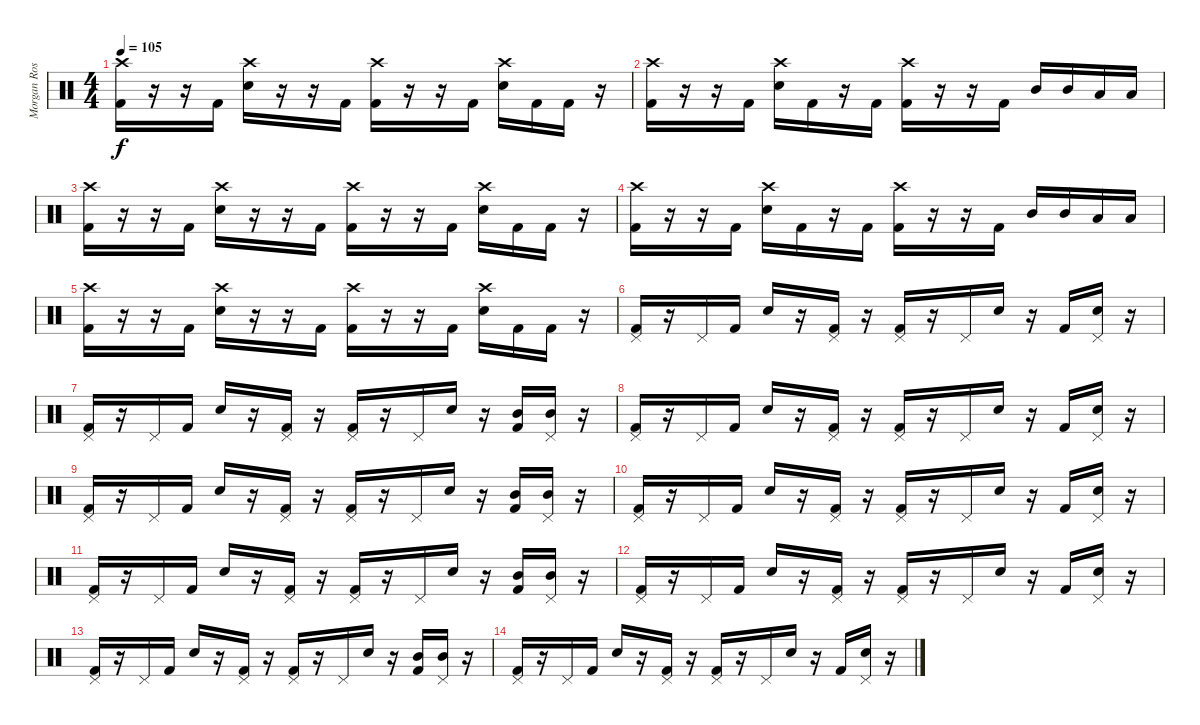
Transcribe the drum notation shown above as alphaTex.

\track ("Morgan Rose - Drums" "Morgan Ros") {instrument percussion}
\staff {score}
\articulation defaults
\ts (4 4)
\tempo 105
\clef neutral
\ks c
("Kick (hit) 2" "Crash high (hit)").16{dy f} r.16 r.16 "Kick (hit) 2".16 ("Snare (hit) 2" "Crash high (hit)").16 r.16 r.16 "Kick (hit) 2".16 ("Kick (hit) 2" "Crash high (hit)").16 r.16 r.16 "Kick (hit) 2".16 ("Snare (hit) 2" "Crash high (hit)").16 "Kick (hit) 2".16 "Kick (hit) 2".16 r.16 |
("Kick (hit) 2" "Crash high (hit)").16 r.16 r.16 "Kick (hit) 2".16 ("Snare (hit) 2" "Crash high (hit)").16 "Kick (hit) 2".16 r.16 "Kick (hit) 2".16 ("Kick (hit) 2" "Crash high (hit)").16 r.16 r.16 "Kick (hit) 2".16 "Mid Tom (hit)".16 "Mid Tom (hit)".16 "Low Tom (hit)".16 "Low Tom (hit)".16 |
("Kick (hit) 2" "Crash high (hit)").16 r.16 r.16 "Kick (hit) 2".16 ("Snare (hit) 2" "Crash high (hit)").16 r.16 r.16 "Kick (hit) 2".16 ("Kick (hit) 2" "Crash high (hit)").16 r.16 r.16 "Kick (hit) 2".16 ("Snare (hit) 2" "Crash high (hit)").16 "Kick (hit) 2".16 "Kick (hit) 2".16 r.16 |
("Kick (hit) 2" "Crash high (hit)").16 r.16 r.16 "Kick (hit) 2".16 ("Snare (hit) 2" "Crash high (hit)").16 "Kick (hit) 2".16 r.16 "Kick (hit) 2".16 ("Kick (hit) 2" "Crash high (hit)").16 r.16 r.16 "Kick (hit) 2".16 "Mid Tom (hit)".16 "Mid Tom (hit)".16 "Low Tom (hit)".16 "Low Tom (hit)".16 |
("Kick (hit) 2" "Crash high (hit)").16 r.16 r.16 "Kick (hit) 2".16 ("Snare (hit) 2" "Crash high (hit)").16 r.16 r.16 "Kick (hit) 2".16 ("Kick (hit) 2" "Crash high (hit)").16 r.16 r.16 "Kick (hit) 2".16 ("Snare (hit) 2" "Crash high (hit)").16 "Kick (hit) 2".16 "Kick (hit) 2".16 r.16 |
("Kick (hit) 2" "Pedal Hi-Hat (hit)").16 r.16 "Pedal Hi-Hat (hit)".16 "Kick (hit) 2".16 "Electric Snare (hit)".16 r.16 ("Kick (hit) 2" "Pedal Hi-Hat (hit)").16 r.16 ("Kick (hit) 2" "Pedal Hi-Hat (hit)").16 r.16 "Pedal Hi-Hat (hit)".16 "Electric Snare (hit)".16 r.16 "Kick (hit) 2".16 ("Electric Snare (hit)" "Pedal Hi-Hat (hit)").16 r.16 |
("Kick (hit) 2" "Pedal Hi-Hat (hit)").16 r.16 "Pedal Hi-Hat (hit)".16 "Kick (hit) 2".16 "Electric Snare (hit)".16 r.16 ("Kick (hit) 2" "Pedal Hi-Hat (hit)").16 r.16 ("Kick (hit) 2" "Pedal Hi-Hat (hit)").16 r.16 "Pedal Hi-Hat (hit)".16 "Electric Snare (hit)".16 r.16 ("Kick (hit) 2" "Mid Tom (hit)").16 ("Mid Tom (hit)" "Pedal Hi-Hat (hit)").16 r.16 |
("Kick (hit) 2" "Pedal Hi-Hat (hit)").16 r.16 "Pedal Hi-Hat (hit)".16 "Kick (hit) 2".16 "Electric Snare (hit)".16 r.16 ("Kick (hit) 2" "Pedal Hi-Hat (hit)").16 r.16 ("Kick (hit) 2" "Pedal Hi-Hat (hit)").16 r.16 "Pedal Hi-Hat (hit)".16 "Electric Snare (hit)".16 r.16 "Kick (hit) 2".16 ("Electric Snare (hit)" "Pedal Hi-Hat (hit)").16 r.16 |
("Kick (hit) 2" "Pedal Hi-Hat (hit)").16 r.16 "Pedal Hi-Hat (hit)".16 "Kick (hit) 2".16 "Electric Snare (hit)".16 r.16 ("Kick (hit) 2" "Pedal Hi-Hat (hit)").16 r.16 ("Kick (hit) 2" "Pedal Hi-Hat (hit)").16 r.16 "Pedal Hi-Hat (hit)".16 "Electric Snare (hit)".16 r.16 ("Kick (hit) 2" "Mid Tom (hit)").16 ("Mid Tom (hit)" "Pedal Hi-Hat (hit)").16 r.16 |
("Kick (hit) 2" "Pedal Hi-Hat (hit)").16 r.16 "Pedal Hi-Hat (hit)".16 "Kick (hit) 2".16 "Electric Snare (hit)".16 r.16 ("Kick (hit) 2" "Pedal Hi-Hat (hit)").16 r.16 ("Kick (hit) 2" "Pedal Hi-Hat (hit)").16 r.16 "Pedal Hi-Hat (hit)".16 "Electric Snare (hit)".16 r.16 "Kick (hit) 2".16 ("Electric Snare (hit)" "Pedal Hi-Hat (hit)").16 r.16 |
("Kick (hit) 2" "Pedal Hi-Hat (hit)").16 r.16 "Pedal Hi-Hat (hit)".16 "Kick (hit) 2".16 "Electric Snare (hit)".16 r.16 ("Kick (hit) 2" "Pedal Hi-Hat (hit)").16 r.16 ("Kick (hit) 2" "Pedal Hi-Hat (hit)").16 r.16 "Pedal Hi-Hat (hit)".16 "Electric Snare (hit)".16 r.16 ("Kick (hit) 2" "Mid Tom (hit)").16 ("Mid Tom (hit)" "Pedal Hi-Hat (hit)").16 r.16 |
("Kick (hit) 2" "Pedal Hi-Hat (hit)").16 r.16 "Pedal Hi-Hat (hit)".16 "Kick (hit) 2".16 "Electric Snare (hit)".16 r.16 ("Kick (hit) 2" "Pedal Hi-Hat (hit)").16 r.16 ("Kick (hit) 2" "Pedal Hi-Hat (hit)").16 r.16 "Pedal Hi-Hat (hit)".16 "Electric Snare (hit)".16 r.16 "Kick (hit) 2".16 ("Electric Snare (hit)" "Pedal Hi-Hat (hit)").16 r.16 |
("Kick (hit) 2" "Pedal Hi-Hat (hit)").16 r.16 "Pedal Hi-Hat (hit)".16 "Kick (hit) 2".16 "Electric Snare (hit)".16 r.16 ("Kick (hit) 2" "Pedal Hi-Hat (hit)").16 r.16 ("Kick (hit) 2" "Pedal Hi-Hat (hit)").16 r.16 "Pedal Hi-Hat (hit)".16 "Electric Snare (hit)".16 r.16 ("Kick (hit) 2" "Mid Tom (hit)").16 ("Mid Tom (hit)" "Pedal Hi-Hat (hit)").16 r.16 |
("Kick (hit) 2" "Pedal Hi-Hat (hit)").16 r.16 "Pedal Hi-Hat (hit)".16 "Kick (hit) 2".16 "Electric Snare (hit)".16 r.16 ("Kick (hit) 2" "Pedal Hi-Hat (hit)").16 r.16 ("Kick (hit) 2" "Pedal Hi-Hat (hit)").16 r.16 "Pedal Hi-Hat (hit)".16 "Electric Snare (hit)".16 r.16 "Kick (hit) 2".16 ("Electric Snare (hit)" "Pedal Hi-Hat (hit)").16 r.16
